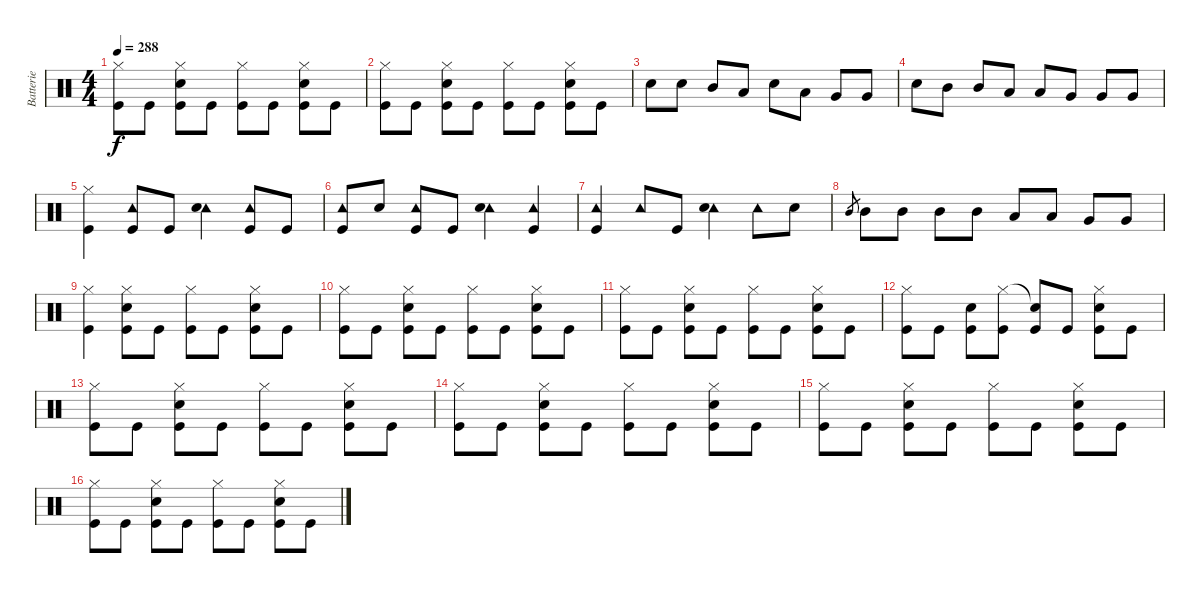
\track ("Batterie" "Batterie") {instrument percussion}
\staff {score}
\articulation defaults
\ts (4 4)
\tempo 288
\clef neutral
\ks c
("Hi-Hat (closed)" "Kick (hit)").8{dy f} "Kick (hit)".8 ("Hi-Hat (closed)" "Snare (hit) 2" "Kick (hit)").8 "Kick (hit)".8 ("Hi-Hat (closed)" "Kick (hit)").8 "Kick (hit)".8 ("Hi-Hat (closed)" "Snare (hit) 2" "Kick (hit)").8 "Kick (hit)".8 |
("Hi-Hat (closed)" "Kick (hit)").8 "Kick (hit)".8 ("Hi-Hat (closed)" "Snare (hit) 2" "Kick (hit)").8 "Kick (hit)".8 ("Hi-Hat (closed)" "Kick (hit)").8 "Kick (hit)".8 ("Hi-Hat (closed)" "Snare (hit) 2" "Kick (hit)").8 "Kick (hit)".8 |
"Snare (hit) 2".8 "Snare (hit) 2".8 "Mid Tom (hit)".8 "Low Tom (hit)".8 "Snare (hit) 2".8 "Low Tom (hit)".8 "Very Low Tom (hit)".8 "Very Low Tom (hit)".8 |
"Snare (hit) 2".8 "Mid Tom (hit)".8 "Mid Tom (hit)".8 "Low Tom (hit)".8 "Low Tom (hit)".8 "Very Low Tom (hit)".8 "Very Low Tom (hit)".8 "Very Low Tom (hit)".8 |
("Hi-Hat (closed)" "Kick (hit)").4 ("Tambourine (hit)" "Kick (hit)").8 "Kick (hit)".8 ("Tambourine (hit)" "Snare (hit) 2").4 ("Tambourine (hit)" "Kick (hit)").8 "Kick (hit)".8 |
("Tambourine (hit)" "Kick (hit)").8 "Snare (hit) 2".8 ("Tambourine (hit)" "Kick (hit)").8 "Kick (hit)".8 ("Tambourine (hit)" "Snare (hit) 2").4 ("Tambourine (hit)" "Kick (hit)").4 |
("Tambourine (hit)" "Kick (hit)").4 "Tambourine (hit)".8 "Kick (hit)".8 ("Tambourine (hit)" "Snare (hit) 2").4 "Tambourine (hit)".8 "Snare (hit) 2".8 |
"Mid Tom (hit)".8{gr} "Mid Tom (hit)".8 "Mid Tom (hit)".8 "Mid Tom (hit)".8 "Mid Tom (hit)".8 "Low Tom (hit)".8 "Low Tom (hit)".8 "Very Low Tom (hit)".8 "Very Low Tom (hit)".8 |
("Hi-Hat (closed)" "Kick (hit)").4 ("Hi-Hat (closed)" "Snare (hit) 2" "Kick (hit)").8 "Kick (hit)".8 ("Hi-Hat (closed)" "Kick (hit)").8 "Kick (hit)".8 ("Hi-Hat (closed)" "Snare (hit) 2" "Kick (hit)").8 "Kick (hit)".8 |
("Hi-Hat (closed)" "Kick (hit)").8 "Kick (hit)".8 ("Hi-Hat (closed)" "Snare (hit) 2" "Kick (hit)").8 "Kick (hit)".8 ("Hi-Hat (closed)" "Kick (hit)").8 "Kick (hit)".8 ("Hi-Hat (closed)" "Snare (hit) 2" "Kick (hit)").8 "Kick (hit)".8 |
("Hi-Hat (closed)" "Kick (hit)").8 "Kick (hit)".8 ("Hi-Hat (closed)" "Snare (hit) 2" "Kick (hit)").8 "Kick (hit)".8 ("Hi-Hat (closed)" "Kick (hit)").8 "Kick (hit)".8 ("Hi-Hat (closed)" "Snare (hit) 2" "Kick (hit)").8 "Kick (hit)".8 |
("Hi-Hat (closed)" "Kick (hit)").8 "Kick (hit)".8 ("Snare (hit) 2" "Kick (hit)").8 ("Hi-Hat (closed)" "Kick (hit)").8 ("Snare (hit)"{t} "Kick (hit)").8 "Kick (hit)".8 ("Hi-Hat (closed)" "Snare (hit) 2" "Kick (hit)").8 "Kick (hit)".8 |
("Hi-Hat (closed)" "Kick (hit)").8 "Kick (hit)".8 ("Hi-Hat (closed)" "Snare (hit) 2" "Kick (hit)").8 "Kick (hit)".8 ("Hi-Hat (closed)" "Kick (hit)").8 "Kick (hit)".8 ("Hi-Hat (closed)" "Snare (hit) 2" "Kick (hit)").8 "Kick (hit)".8 |
("Hi-Hat (closed)" "Kick (hit)").8 "Kick (hit)".8 ("Hi-Hat (closed)" "Snare (hit) 2" "Kick (hit)").8 "Kick (hit)".8 ("Hi-Hat (closed)" "Kick (hit)").8 "Kick (hit)".8 ("Hi-Hat (closed)" "Snare (hit) 2" "Kick (hit)").8 "Kick (hit)".8 |
("Hi-Hat (closed)" "Kick (hit)").8 "Kick (hit)".8 ("Hi-Hat (closed)" "Snare (hit) 2" "Kick (hit)").8 "Kick (hit)".8 ("Hi-Hat (closed)" "Kick (hit)").8 "Kick (hit)".8 ("Hi-Hat (closed)" "Snare (hit) 2" "Kick (hit)").8 "Kick (hit)".8 |
("Hi-Hat (closed)" "Kick (hit)").8 "Kick (hit)".8 ("Hi-Hat (closed)" "Snare (hit) 2" "Kick (hit)").8 "Kick (hit)".8 ("Hi-Hat (closed)" "Kick (hit)").8 "Kick (hit)".8 ("Hi-Hat (closed)" "Snare (hit) 2" "Kick (hit)").8 "Kick (hit)".8
